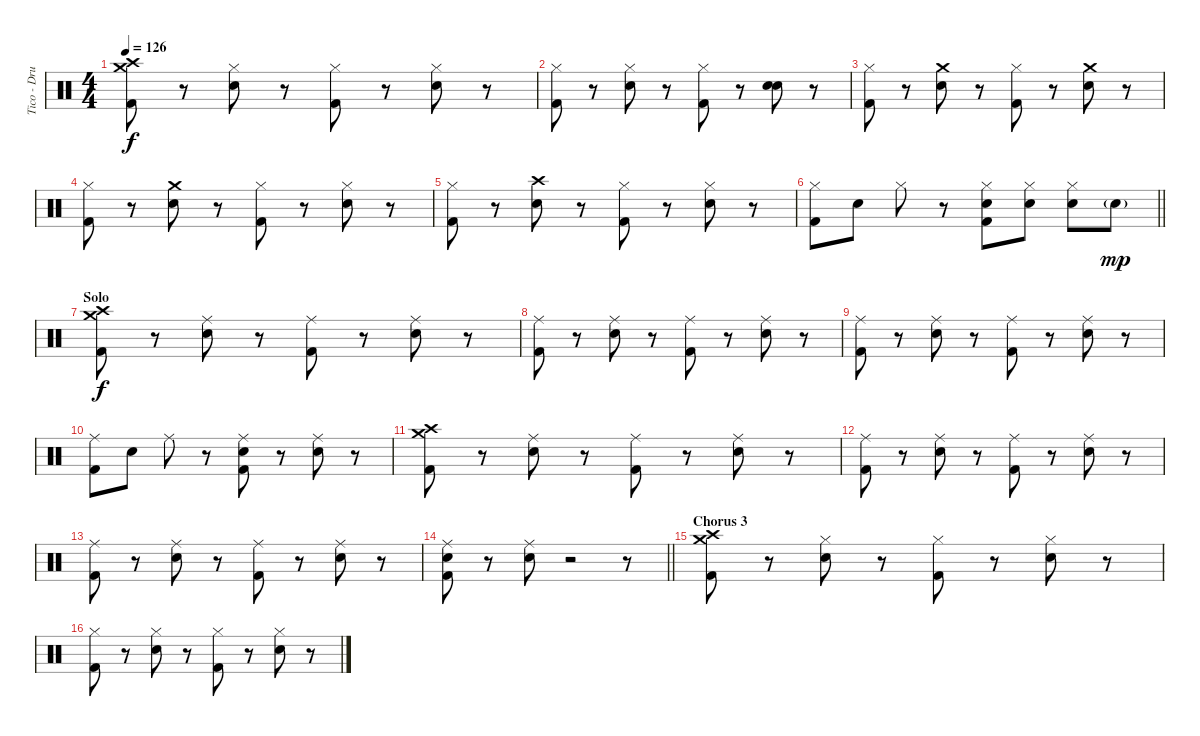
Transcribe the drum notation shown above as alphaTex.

\track ("Tico - Drums" "Tico - Dru") {instrument percussion}
\staff {score}
\articulation defaults
\ts (4 4)
\tempo 126
\clef neutral
\ks c
("Crash medium (hit)" "Kick (hit) 2" "Crash high (hit)").8{dy f} r.8 ("Hi-Hat (closed)" "Snare (hit) 2").8 r.8 ("Hi-Hat (closed)" "Kick (hit) 2").8 r.8 ("Hi-Hat (closed)" "Snare (hit) 2").8 r.8 |
("Hi-Hat (closed)" "Kick (hit) 2").8 r.8 ("Hi-Hat (closed)" "Snare (hit) 2").8 r.8 ("Hi-Hat (closed)" "Kick (hit) 2").8 r.8 ("Snare (hit) 2" "Snare (hit) 2").8 r.8 |
("Hi-Hat (closed)" "Kick (hit) 2").8 r.8 ("Snare (hit) 2" "Crash medium (hit)").8 r.8 ("Hi-Hat (closed)" "Kick (hit) 2").8 r.8 ("Snare (hit) 2" "Crash medium (hit)").8 r.8 |
("Hi-Hat (closed)" "Kick (hit) 2").8 r.8 ("Snare (hit) 2" "Crash medium (hit)").8 r.8 ("Hi-Hat (closed)" "Kick (hit) 2").8 r.8 ("Hi-Hat (closed)" "Snare (hit) 2").8 r.8 |
("Hi-Hat (closed)" "Kick (hit) 2").8 r.8 ("Snare (hit) 2" "Crash high (hit)").8 r.8 ("Hi-Hat (closed)" "Kick (hit) 2").8 r.8 ("Hi-Hat (closed)" "Snare (hit) 2").8 r.8 |
\barLineRight lightlight
("Hi-Hat (closed)" "Kick (hit) 2").8 "Snare (hit) 2".8 "Hi-Hat (closed)".8 r.8 ("Hi-Hat (closed)" "Snare (hit) 2" "Kick (hit) 2").8 ("Hi-Hat (closed)" "Snare (hit) 2").8 ("Hi-Hat (closed)" "Snare (hit) 2").8 "Snare (hit) 2"{g}.8{dy mp} |
\section ("" "Solo")
("Crash medium (hit)" "Kick (hit) 2" "Crash high (hit)").8{dy f} r.8 ("Ride (middle)" "Snare (hit) 2").8 r.8 ("Ride (middle)" "Kick (hit) 2").8 r.8 ("Ride (middle)" "Snare (hit) 2").8 r.8 |
("Ride (middle)" "Kick (hit) 2").8 r.8 ("Ride (middle)" "Snare (hit) 2").8 r.8 ("Ride (middle)" "Kick (hit) 2").8 r.8 ("Ride (middle)" "Snare (hit) 2").8 r.8 |
("Ride (middle)" "Kick (hit) 2").8 r.8 ("Ride (middle)" "Snare (hit) 2").8 r.8 ("Ride (middle)" "Kick (hit) 2").8 r.8 ("Ride (middle)" "Snare (hit) 2").8 r.8 |
("Ride (middle)" "Kick (hit) 2").8 "Snare (hit) 2".8 "Ride (middle)".8 r.8 ("Ride (middle)" "Snare (hit) 2" "Kick (hit) 2").8 r.8 ("Ride (middle)" "Snare (hit) 2").8 r.8 |
("Crash medium (hit)" "Kick (hit) 2" "Crash high (hit)").8 r.8 ("Ride (middle)" "Snare (hit) 2").8 r.8 ("Ride (middle)" "Kick (hit) 2").8 r.8 ("Ride (middle)" "Snare (hit) 2").8 r.8 |
("Ride (middle)" "Kick (hit) 2").8 r.8 ("Ride (middle)" "Snare (hit) 2").8 r.8 ("Ride (middle)" "Kick (hit) 2").8 r.8 ("Ride (middle)" "Snare (hit) 2").8 r.8 |
("Ride (middle)" "Kick (hit) 2").8 r.8 ("Ride (middle)" "Snare (hit) 2").8 r.8 ("Ride (middle)" "Kick (hit) 2").8 r.8 ("Ride (middle)" "Snare (hit) 2").8 r.8 |
\barLineRight lightlight
("Ride (middle)" "Snare (hit) 2" "Kick (hit) 2").8 r.8 ("Ride (middle)" "Snare (hit) 2").8 r.2 r.8 |
\section ("" "Chorus 3")
("Crash medium (hit)" "Kick (hit) 2" "Crash high (hit)").8 r.8 ("Hi-Hat (closed)" "Snare (hit) 2").8 r.8 ("Hi-Hat (closed)" "Kick (hit) 2").8 r.8 ("Hi-Hat (closed)" "Snare (hit) 2").8 r.8 |
("Hi-Hat (closed)" "Kick (hit) 2").8 r.8 ("Hi-Hat (closed)" "Snare (hit) 2").8 r.8 ("Hi-Hat (closed)" "Kick (hit) 2").8 r.8 ("Hi-Hat (closed)" "Snare (hit) 2").8 r.8
